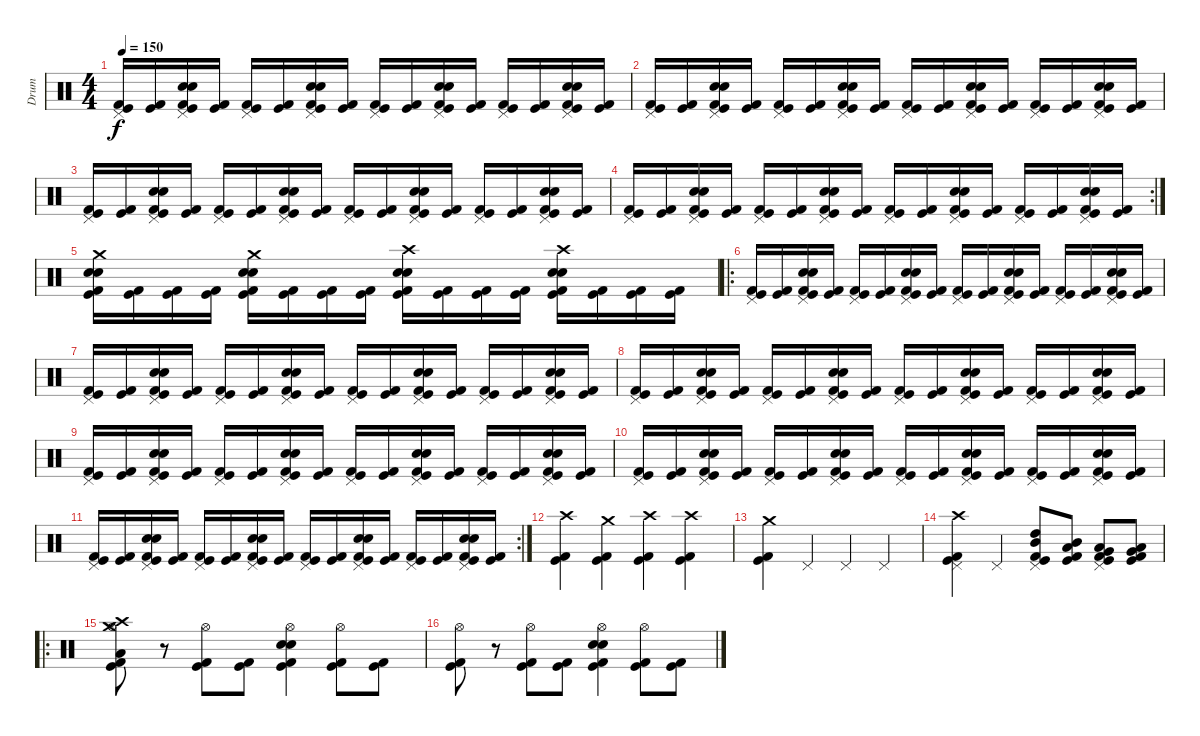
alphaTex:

\track ("Drum" "Drum") {instrument percussion}
\staff {score}
\articulation defaults
\ts (4 4)
\tempo 150
\clef neutral
\ks c
("Pedal Hi-Hat (hit)" "Kick (hit) 2" "Kick (hit)").16{dy f} ("Kick (hit) 2" "Kick (hit)").16 ("Pedal Hi-Hat (hit)" "Electric Snare (hit)" "Snare (hit) 2" "Kick (hit) 2" "Kick (hit)").16 ("Kick (hit) 2" "Kick (hit)").16 ("Pedal Hi-Hat (hit)" "Kick (hit) 2" "Kick (hit)").16 ("Kick (hit) 2" "Kick (hit)").16 ("Pedal Hi-Hat (hit)" "Electric Snare (hit)" "Snare (hit) 2" "Kick (hit) 2" "Kick (hit)").16 ("Kick (hit) 2" "Kick (hit)").16 ("Pedal Hi-Hat (hit)" "Kick (hit) 2" "Kick (hit)").16 ("Kick (hit) 2" "Kick (hit)").16 ("Pedal Hi-Hat (hit)" "Electric Snare (hit)" "Snare (hit) 2" "Kick (hit) 2" "Kick (hit)").16 ("Kick (hit) 2" "Kick (hit)").16 ("Pedal Hi-Hat (hit)" "Kick (hit) 2" "Kick (hit)").16 ("Kick (hit) 2" "Kick (hit)").16 ("Pedal Hi-Hat (hit)" "Electric Snare (hit)" "Snare (hit) 2" "Kick (hit) 2" "Kick (hit)").16 ("Kick (hit) 2" "Kick (hit)").16 |
("Pedal Hi-Hat (hit)" "Kick (hit) 2" "Kick (hit)").16 ("Kick (hit) 2" "Kick (hit)").16 ("Pedal Hi-Hat (hit)" "Electric Snare (hit)" "Snare (hit) 2" "Kick (hit) 2" "Kick (hit)").16 ("Kick (hit) 2" "Kick (hit)").16 ("Pedal Hi-Hat (hit)" "Kick (hit) 2" "Kick (hit)").16 ("Kick (hit) 2" "Kick (hit)").16 ("Pedal Hi-Hat (hit)" "Electric Snare (hit)" "Snare (hit) 2" "Kick (hit) 2" "Kick (hit)").16 ("Kick (hit) 2" "Kick (hit)").16 ("Pedal Hi-Hat (hit)" "Kick (hit) 2" "Kick (hit)").16 ("Kick (hit) 2" "Kick (hit)").16 ("Pedal Hi-Hat (hit)" "Electric Snare (hit)" "Snare (hit) 2" "Kick (hit) 2" "Kick (hit)").16 ("Kick (hit) 2" "Kick (hit)").16 ("Pedal Hi-Hat (hit)" "Kick (hit) 2" "Kick (hit)").16 ("Kick (hit) 2" "Kick (hit)").16 ("Pedal Hi-Hat (hit)" "Electric Snare (hit)" "Snare (hit) 2" "Kick (hit) 2" "Kick (hit)").16 ("Kick (hit) 2" "Kick (hit)").16 |
("Pedal Hi-Hat (hit)" "Kick (hit) 2" "Kick (hit)").16 ("Kick (hit) 2" "Kick (hit)").16 ("Pedal Hi-Hat (hit)" "Electric Snare (hit)" "Snare (hit) 2" "Kick (hit) 2" "Kick (hit)").16 ("Kick (hit) 2" "Kick (hit)").16 ("Pedal Hi-Hat (hit)" "Kick (hit) 2" "Kick (hit)").16 ("Kick (hit) 2" "Kick (hit)").16 ("Pedal Hi-Hat (hit)" "Electric Snare (hit)" "Snare (hit) 2" "Kick (hit) 2" "Kick (hit)").16 ("Kick (hit) 2" "Kick (hit)").16 ("Pedal Hi-Hat (hit)" "Kick (hit) 2" "Kick (hit)").16 ("Kick (hit) 2" "Kick (hit)").16 ("Pedal Hi-Hat (hit)" "Electric Snare (hit)" "Snare (hit) 2" "Kick (hit) 2" "Kick (hit)").16 ("Kick (hit) 2" "Kick (hit)").16 ("Pedal Hi-Hat (hit)" "Kick (hit) 2" "Kick (hit)").16 ("Kick (hit) 2" "Kick (hit)").16 ("Pedal Hi-Hat (hit)" "Electric Snare (hit)" "Snare (hit) 2" "Kick (hit) 2" "Kick (hit)").16 ("Kick (hit) 2" "Kick (hit)").16 |
\rc 2
("Pedal Hi-Hat (hit)" "Kick (hit) 2" "Kick (hit)").16 ("Kick (hit) 2" "Kick (hit)").16 ("Pedal Hi-Hat (hit)" "Electric Snare (hit)" "Snare (hit) 2" "Kick (hit) 2" "Kick (hit)").16 ("Kick (hit) 2" "Kick (hit)").16 ("Pedal Hi-Hat (hit)" "Kick (hit) 2" "Kick (hit)").16 ("Kick (hit) 2" "Kick (hit)").16 ("Pedal Hi-Hat (hit)" "Electric Snare (hit)" "Snare (hit) 2" "Kick (hit) 2" "Kick (hit)").16 ("Kick (hit) 2" "Kick (hit)").16 ("Pedal Hi-Hat (hit)" "Kick (hit) 2" "Kick (hit)").16 ("Kick (hit) 2" "Kick (hit)").16 ("Pedal Hi-Hat (hit)" "Electric Snare (hit)" "Snare (hit) 2" "Kick (hit) 2" "Kick (hit)").16 ("Kick (hit) 2" "Kick (hit)").16 ("Pedal Hi-Hat (hit)" "Kick (hit) 2" "Kick (hit)").16 ("Kick (hit) 2" "Kick (hit)").16 ("Pedal Hi-Hat (hit)" "Electric Snare (hit)" "Snare (hit) 2" "Kick (hit) 2" "Kick (hit)").16 ("Kick (hit) 2" "Kick (hit)").16 |
("Crash medium (hit)" "Electric Snare (hit)" "Snare (hit) 2" "Kick (hit) 2" "Kick (hit)").16 ("Kick (hit) 2" "Kick (hit)").16 ("Kick (hit) 2" "Kick (hit)").16 ("Kick (hit) 2" "Kick (hit)").16 ("Crash medium (hit)" "Electric Snare (hit)" "Snare (hit) 2" "Kick (hit) 2" "Kick (hit)").16 ("Kick (hit) 2" "Kick (hit)").16 ("Kick (hit) 2" "Kick (hit)").16 ("Kick (hit) 2" "Kick (hit)").16 ("Crash high (hit)" "Electric Snare (hit)" "Snare (hit) 2" "Kick (hit) 2" "Kick (hit)").16 ("Kick (hit) 2" "Kick (hit)").16 ("Kick (hit) 2" "Kick (hit)").16 ("Kick (hit) 2" "Kick (hit)").16 ("Crash high (hit)" "Snare (hit) 2" "Electric Snare (hit)" "Kick (hit) 2" "Kick (hit)").16 ("Kick (hit) 2" "Kick (hit)").16 ("Kick (hit) 2" "Kick (hit)").16 ("Kick (hit) 2" "Kick (hit)").16 |
\ro
("Pedal Hi-Hat (hit)" "Kick (hit) 2" "Kick (hit)").16 ("Kick (hit) 2" "Kick (hit)").16 ("Pedal Hi-Hat (hit)" "Electric Snare (hit)" "Snare (hit) 2" "Kick (hit) 2" "Kick (hit)").16 ("Kick (hit) 2" "Kick (hit)").16 ("Pedal Hi-Hat (hit)" "Kick (hit) 2" "Kick (hit)").16 ("Kick (hit) 2" "Kick (hit)").16 ("Pedal Hi-Hat (hit)" "Electric Snare (hit)" "Snare (hit) 2" "Kick (hit) 2" "Kick (hit)").16 ("Kick (hit) 2" "Kick (hit)").16 ("Pedal Hi-Hat (hit)" "Kick (hit) 2" "Kick (hit)").16 ("Kick (hit) 2" "Kick (hit)").16 ("Pedal Hi-Hat (hit)" "Electric Snare (hit)" "Snare (hit) 2" "Kick (hit) 2" "Kick (hit)").16 ("Kick (hit) 2" "Kick (hit)").16 ("Pedal Hi-Hat (hit)" "Kick (hit) 2" "Kick (hit)").16 ("Kick (hit) 2" "Kick (hit)").16 ("Pedal Hi-Hat (hit)" "Electric Snare (hit)" "Snare (hit) 2" "Kick (hit) 2" "Kick (hit)").16 ("Kick (hit) 2" "Kick (hit)").16 |
("Pedal Hi-Hat (hit)" "Kick (hit) 2" "Kick (hit)").16 ("Kick (hit) 2" "Kick (hit)").16 ("Pedal Hi-Hat (hit)" "Electric Snare (hit)" "Snare (hit) 2" "Kick (hit) 2" "Kick (hit)").16 ("Kick (hit) 2" "Kick (hit)").16 ("Pedal Hi-Hat (hit)" "Kick (hit) 2" "Kick (hit)").16 ("Kick (hit) 2" "Kick (hit)").16 ("Pedal Hi-Hat (hit)" "Electric Snare (hit)" "Snare (hit) 2" "Kick (hit) 2" "Kick (hit)").16 ("Kick (hit) 2" "Kick (hit)").16 ("Pedal Hi-Hat (hit)" "Kick (hit) 2" "Kick (hit)").16 ("Kick (hit) 2" "Kick (hit)").16 ("Pedal Hi-Hat (hit)" "Electric Snare (hit)" "Snare (hit) 2" "Kick (hit) 2" "Kick (hit)").16 ("Kick (hit) 2" "Kick (hit)").16 ("Pedal Hi-Hat (hit)" "Kick (hit) 2" "Kick (hit)").16 ("Kick (hit) 2" "Kick (hit)").16 ("Pedal Hi-Hat (hit)" "Electric Snare (hit)" "Snare (hit) 2" "Kick (hit) 2" "Kick (hit)").16 ("Kick (hit) 2" "Kick (hit)").16 |
("Pedal Hi-Hat (hit)" "Kick (hit) 2" "Kick (hit)").16 ("Kick (hit) 2" "Kick (hit)").16 ("Pedal Hi-Hat (hit)" "Electric Snare (hit)" "Snare (hit) 2" "Kick (hit) 2" "Kick (hit)").16 ("Kick (hit) 2" "Kick (hit)").16 ("Pedal Hi-Hat (hit)" "Kick (hit) 2" "Kick (hit)").16 ("Kick (hit) 2" "Kick (hit)").16 ("Pedal Hi-Hat (hit)" "Electric Snare (hit)" "Snare (hit) 2" "Kick (hit) 2" "Kick (hit)").16 ("Kick (hit) 2" "Kick (hit)").16 ("Pedal Hi-Hat (hit)" "Kick (hit) 2" "Kick (hit)").16 ("Kick (hit) 2" "Kick (hit)").16 ("Pedal Hi-Hat (hit)" "Electric Snare (hit)" "Snare (hit) 2" "Kick (hit) 2" "Kick (hit)").16 ("Kick (hit) 2" "Kick (hit)").16 ("Pedal Hi-Hat (hit)" "Kick (hit) 2" "Kick (hit)").16 ("Kick (hit) 2" "Kick (hit)").16 ("Pedal Hi-Hat (hit)" "Electric Snare (hit)" "Snare (hit) 2" "Kick (hit) 2" "Kick (hit)").16 ("Kick (hit) 2" "Kick (hit)").16 |
("Pedal Hi-Hat (hit)" "Kick (hit) 2" "Kick (hit)").16 ("Kick (hit) 2" "Kick (hit)").16 ("Pedal Hi-Hat (hit)" "Electric Snare (hit)" "Snare (hit) 2" "Kick (hit) 2" "Kick (hit)").16 ("Kick (hit) 2" "Kick (hit)").16 ("Pedal Hi-Hat (hit)" "Kick (hit) 2" "Kick (hit)").16 ("Kick (hit) 2" "Kick (hit)").16 ("Pedal Hi-Hat (hit)" "Electric Snare (hit)" "Snare (hit) 2" "Kick (hit) 2" "Kick (hit)").16 ("Kick (hit) 2" "Kick (hit)").16 ("Pedal Hi-Hat (hit)" "Kick (hit) 2" "Kick (hit)").16 ("Kick (hit) 2" "Kick (hit)").16 ("Pedal Hi-Hat (hit)" "Electric Snare (hit)" "Snare (hit) 2" "Kick (hit) 2" "Kick (hit)").16 ("Kick (hit) 2" "Kick (hit)").16 ("Pedal Hi-Hat (hit)" "Kick (hit) 2" "Kick (hit)").16 ("Kick (hit) 2" "Kick (hit)").16 ("Pedal Hi-Hat (hit)" "Electric Snare (hit)" "Snare (hit) 2" "Kick (hit) 2" "Kick (hit)").16 ("Kick (hit) 2" "Kick (hit)").16 |
("Pedal Hi-Hat (hit)" "Kick (hit) 2" "Kick (hit)").16 ("Kick (hit) 2" "Kick (hit)").16 ("Pedal Hi-Hat (hit)" "Electric Snare (hit)" "Snare (hit) 2" "Kick (hit) 2" "Kick (hit)").16 ("Kick (hit) 2" "Kick (hit)").16 ("Pedal Hi-Hat (hit)" "Kick (hit) 2" "Kick (hit)").16 ("Kick (hit) 2" "Kick (hit)").16 ("Pedal Hi-Hat (hit)" "Electric Snare (hit)" "Snare (hit) 2" "Kick (hit) 2" "Kick (hit)").16 ("Kick (hit) 2" "Kick (hit)").16 ("Pedal Hi-Hat (hit)" "Kick (hit) 2" "Kick (hit)").16 ("Kick (hit) 2" "Kick (hit)").16 ("Pedal Hi-Hat (hit)" "Electric Snare (hit)" "Snare (hit) 2" "Kick (hit) 2" "Kick (hit)").16 ("Kick (hit) 2" "Kick (hit)").16 ("Pedal Hi-Hat (hit)" "Kick (hit) 2" "Kick (hit)").16 ("Kick (hit) 2" "Kick (hit)").16 ("Pedal Hi-Hat (hit)" "Electric Snare (hit)" "Snare (hit) 2" "Kick (hit) 2" "Kick (hit)").16 ("Kick (hit) 2" "Kick (hit)").16 |
\rc 2
("Pedal Hi-Hat (hit)" "Kick (hit) 2" "Kick (hit)").16 ("Kick (hit) 2" "Kick (hit)").16 ("Pedal Hi-Hat (hit)" "Electric Snare (hit)" "Snare (hit) 2" "Kick (hit) 2" "Kick (hit)").16 ("Kick (hit) 2" "Kick (hit)").16 ("Pedal Hi-Hat (hit)" "Kick (hit) 2" "Kick (hit)").16 ("Kick (hit) 2" "Kick (hit)").16 ("Pedal Hi-Hat (hit)" "Electric Snare (hit)" "Snare (hit) 2" "Kick (hit) 2" "Kick (hit)").16 ("Kick (hit) 2" "Kick (hit)").16 ("Pedal Hi-Hat (hit)" "Kick (hit) 2" "Kick (hit)").16 ("Kick (hit) 2" "Kick (hit)").16 ("Pedal Hi-Hat (hit)" "Electric Snare (hit)" "Snare (hit) 2" "Kick (hit) 2" "Kick (hit)").16 ("Kick (hit) 2" "Kick (hit)").16 ("Pedal Hi-Hat (hit)" "Kick (hit) 2" "Kick (hit)").16 ("Kick (hit) 2" "Kick (hit)").16 ("Pedal Hi-Hat (hit)" "Electric Snare (hit)" "Snare (hit) 2" "Kick (hit) 2" "Kick (hit)").16 ("Kick (hit) 2" "Kick (hit)").16 |
("Crash high (hit)" "Kick (hit) 2" "Kick (hit)").4 ("Crash medium (hit)" "Kick (hit)" "Kick (hit) 2").4 ("Crash high (hit)" "Kick (hit) 2" "Kick (hit)").4 ("Crash high (hit)" "Kick (hit) 2" "Kick (hit)").4 |
("Crash medium (hit)" "Kick (hit)" "Kick (hit) 2").4 "Pedal Hi-Hat (hit)".4 "Pedal Hi-Hat (hit)".4 "Pedal Hi-Hat (hit)".4 |
("Crash high (hit)" "Pedal Hi-Hat (hit)" "Kick (hit) 2" "Kick (hit)").4 "Pedal Hi-Hat (hit)".4 ("Mid Tom (hit)" "High Tom (hit)" "Pedal Hi-Hat (hit)" "Kick (hit) 2" "Kick (hit)").8 ("Low Tom (hit)" "Mid Tom (hit)" "Kick (hit) 2" "Kick (hit)").8 ("Very Low Tom (hit)" "Low Tom (hit)" "Pedal Hi-Hat (hit)" "Kick (hit) 2" "Kick (hit)").8 ("Low Floor Tom (hit)" "Very Low Tom (hit)" "Kick (hit) 2" "Kick (hit)").8 |
\ro
("Crash high (hit)" "Low Tom (hit)" "Hi-Hat (open)" "Crash medium (hit)" "Kick (hit)" "Kick (hit) 2").8 r.8 ("Hi-Hat (open)" "Kick (hit)" "Kick (hit) 2").8 ("Kick (hit)" "Kick (hit) 2").8 ("Hi-Hat (open)" "Electric Snare (hit)" "Snare (hit) 2" "Kick (hit)" "Kick (hit) 2").4 ("Hi-Hat (open)" "Kick (hit) 2" "Kick (hit)").8 ("Kick (hit) 2" "Kick (hit)").8 |
("Hi-Hat (open)" "Kick (hit)" "Kick (hit) 2").8 r.8 ("Hi-Hat (open)" "Kick (hit)" "Kick (hit) 2").8 ("Kick (hit)" "Kick (hit) 2").8 ("Hi-Hat (open)" "Electric Snare (hit)" "Snare (hit) 2" "Kick (hit)" "Kick (hit) 2").4 ("Hi-Hat (open)" "Kick (hit) 2" "Kick (hit)").8 ("Kick (hit) 2" "Kick (hit)").8
